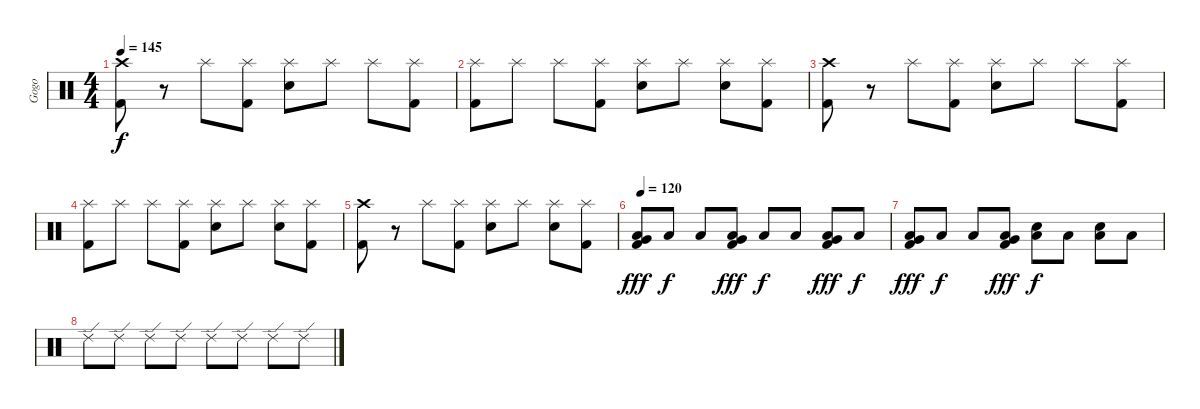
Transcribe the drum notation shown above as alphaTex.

\track ("Gogo" "Gogo") {instrument percussion}
\staff {score}
\articulation defaults
\ts (4 4)
\tempo 145
\clef neutral
\ks c
("Crash high (hit)" "Kick (hit) 2").8{dy f} r.8 "Splash (hit)".8 ("Splash (hit)" "Kick (hit) 2").8 ("Splash (hit)" "Electric Snare (hit)").8 "Splash (hit)".8 "Splash (hit)".8 ("Splash (hit)" "Kick (hit) 2").8 |
("Splash (hit)" "Kick (hit) 2").8 "Splash (hit)".8 "Splash (hit)".8 ("Splash (hit)" "Kick (hit) 2").8 ("Splash (hit)" "Electric Snare (hit)").8 "Splash (hit)".8 ("Splash (hit)" "Electric Snare (hit)").8 ("Splash (hit)" "Kick (hit) 2").8 |
("Crash high (hit)" "Kick (hit) 2").8 r.8 "Splash (hit)".8 ("Splash (hit)" "Kick (hit) 2").8 ("Splash (hit)" "Electric Snare (hit)").8 "Splash (hit)".8 "Splash (hit)".8 ("Splash (hit)" "Kick (hit) 2").8 |
("Splash (hit)" "Kick (hit) 2").8 "Splash (hit)".8 "Splash (hit)".8 ("Splash (hit)" "Kick (hit) 2").8 ("Splash (hit)" "Electric Snare (hit)").8 "Splash (hit)".8 ("Splash (hit)" "Electric Snare (hit)").8 ("Splash (hit)" "Kick (hit) 2").8 |
("Crash high (hit)" "Kick (hit) 2").8 r.8 "Splash (hit)".8 ("Splash (hit)" "Kick (hit) 2").8 ("Splash (hit)" "Electric Snare (hit)").8 "Splash (hit)".8 ("Splash (hit)" "Electric Snare (hit)").8 ("Splash (hit)" "Kick (hit) 2").8 |
\tempo 120
("Very Low Tom (hit)" "Low Floor Tom (hit)" "Kick (hit) 2").8{dy fff} "Low Floor Tom (hit)".8{dy f} "Low Floor Tom (hit)".8 ("Very Low Tom (hit)" "Low Floor Tom (hit)" "Kick (hit) 2").8{dy fff} "Low Floor Tom (hit)".8{dy f} "Low Floor Tom (hit)".8 ("Very Low Tom (hit)" "Low Floor Tom (hit)" "Kick (hit) 2").8{dy fff} "Low Floor Tom (hit)".8{dy f} |
("Very Low Tom (hit)" "Low Floor Tom (hit)" "Kick (hit) 2").8{dy fff} "Low Floor Tom (hit)".8{dy f} "Low Floor Tom (hit)".8 ("Very Low Tom (hit)" "Low Floor Tom (hit)" "Kick (hit) 2").8{dy fff} ("Snare (hit) 2" "Low Floor Tom (hit)").8{dy f} "Low Floor Tom (hit)".8 ("Snare (hit) 2" "Low Floor Tom (hit)").8 "Low Floor Tom (hit)".8 |
"Ride (edge) 2".8 "Ride (edge) 2".8 "Ride (edge) 2".8 "Ride (edge) 2".8 "Ride (edge) 2".8 "Ride (edge) 2".8 "Ride (edge) 2".8 "Ride (edge) 2".8
